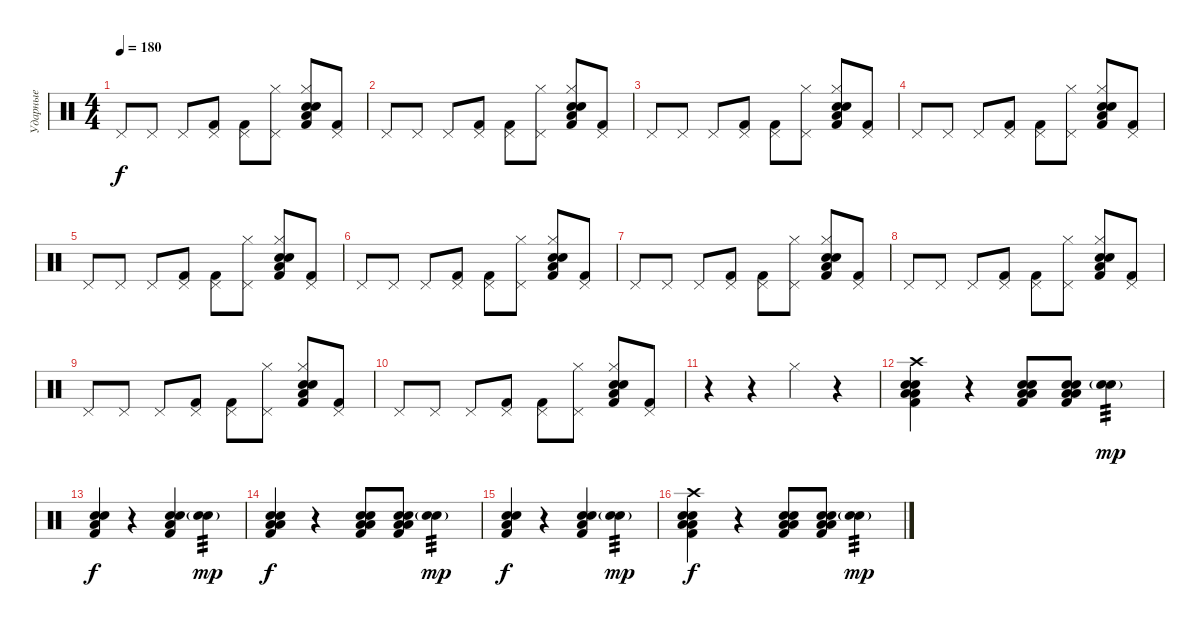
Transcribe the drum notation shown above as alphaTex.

\track ("Ударные" "Ударные") {instrument percussion}
\staff {score}
\articulation defaults
\ts (4 4)
\tempo 180
\clef neutral
\ks c "Pedal Hi-Hat (hit)".8{dy f} "Pedal Hi-Hat (hit)".8 "Pedal Hi-Hat (hit)".8
("Kick (hit) 2" "Pedal Hi-Hat (hit)").8 ("Kick (hit) 2" "Pedal Hi-Hat (hit)").8 ("Hi-Hat (closed)" "Pedal Hi-Hat (hit)").8 ("Hi-Hat (closed)" "Kick (hit) 2" "Snare (hit) 2" "Electric Snare (hit)" "Low Floor Tom (hit)").8 ("Kick (hit) 2" "Pedal Hi-Hat (hit)").8 |
"Pedal Hi-Hat (hit)".8 "Pedal Hi-Hat (hit)".8 "Pedal Hi-Hat (hit)".8 ("Kick (hit) 2" "Pedal Hi-Hat (hit)").8 ("Kick (hit) 2" "Pedal Hi-Hat (hit)").8 ("Hi-Hat (closed)" "Pedal Hi-Hat (hit)").8 ("Hi-Hat (closed)" "Kick (hit) 2" "Snare (hit) 2" "Electric Snare (hit)" "Low Floor Tom (hit)").8 ("Kick (hit) 2" "Pedal Hi-Hat (hit)").8 |
"Pedal Hi-Hat (hit)".8 "Pedal Hi-Hat (hit)".8 "Pedal Hi-Hat (hit)".8 ("Kick (hit) 2" "Pedal Hi-Hat (hit)").8 ("Kick (hit) 2" "Pedal Hi-Hat (hit)").8 ("Hi-Hat (closed)" "Pedal Hi-Hat (hit)").8 ("Hi-Hat (closed)" "Kick (hit) 2" "Snare (hit) 2" "Electric Snare (hit)" "Low Floor Tom (hit)").8 ("Kick (hit) 2" "Pedal Hi-Hat (hit)").8 |
"Pedal Hi-Hat (hit)".8 "Pedal Hi-Hat (hit)".8 "Pedal Hi-Hat (hit)".8 ("Kick (hit) 2" "Pedal Hi-Hat (hit)").8 ("Kick (hit) 2" "Pedal Hi-Hat (hit)").8 ("Hi-Hat (closed)" "Pedal Hi-Hat (hit)").8 ("Hi-Hat (closed)" "Kick (hit) 2" "Snare (hit) 2" "Electric Snare (hit)" "Low Floor Tom (hit)").8 ("Kick (hit) 2" "Pedal Hi-Hat (hit)").8 |
"Pedal Hi-Hat (hit)".8 "Pedal Hi-Hat (hit)".8 "Pedal Hi-Hat (hit)".8 ("Kick (hit) 2" "Pedal Hi-Hat (hit)").8 ("Kick (hit) 2" "Pedal Hi-Hat (hit)").8 ("Hi-Hat (closed)" "Pedal Hi-Hat (hit)").8 ("Hi-Hat (closed)" "Kick (hit) 2" "Snare (hit) 2" "Electric Snare (hit)" "Low Floor Tom (hit)").8 ("Kick (hit) 2" "Pedal Hi-Hat (hit)").8 |
"Pedal Hi-Hat (hit)".8 "Pedal Hi-Hat (hit)".8 "Pedal Hi-Hat (hit)".8 ("Kick (hit) 2" "Pedal Hi-Hat (hit)").8 ("Kick (hit) 2" "Pedal Hi-Hat (hit)").8 ("Hi-Hat (closed)" "Pedal Hi-Hat (hit)").8 ("Hi-Hat (closed)" "Kick (hit) 2" "Snare (hit) 2" "Electric Snare (hit)" "Low Floor Tom (hit)").8 ("Kick (hit) 2" "Pedal Hi-Hat (hit)").8 |
"Pedal Hi-Hat (hit)".8 "Pedal Hi-Hat (hit)".8 "Pedal Hi-Hat (hit)".8 ("Kick (hit) 2" "Pedal Hi-Hat (hit)").8 ("Kick (hit) 2" "Pedal Hi-Hat (hit)").8 ("Hi-Hat (closed)" "Pedal Hi-Hat (hit)").8 ("Hi-Hat (closed)" "Kick (hit) 2" "Snare (hit) 2" "Electric Snare (hit)" "Low Floor Tom (hit)").8 ("Kick (hit) 2" "Pedal Hi-Hat (hit)").8 |
"Pedal Hi-Hat (hit)".8 "Pedal Hi-Hat (hit)".8 "Pedal Hi-Hat (hit)".8 ("Kick (hit) 2" "Pedal Hi-Hat (hit)").8 ("Kick (hit) 2" "Pedal Hi-Hat (hit)").8 ("Hi-Hat (closed)" "Pedal Hi-Hat (hit)").8 ("Hi-Hat (closed)" "Kick (hit) 2" "Snare (hit) 2" "Electric Snare (hit)" "Low Floor Tom (hit)").8 ("Kick (hit) 2" "Pedal Hi-Hat (hit)").8 |
"Pedal Hi-Hat (hit)".8 "Pedal Hi-Hat (hit)".8 "Pedal Hi-Hat (hit)".8 ("Kick (hit) 2" "Pedal Hi-Hat (hit)").8 ("Kick (hit) 2" "Pedal Hi-Hat (hit)").8 ("Hi-Hat (closed)" "Pedal Hi-Hat (hit)").8 ("Hi-Hat (closed)" "Kick (hit) 2" "Snare (hit) 2" "Electric Snare (hit)" "Low Floor Tom (hit)").8 ("Kick (hit) 2" "Pedal Hi-Hat (hit)").8 |
"Pedal Hi-Hat (hit)".8 "Pedal Hi-Hat (hit)".8 "Pedal Hi-Hat (hit)".8 ("Kick (hit) 2" "Pedal Hi-Hat (hit)").8 ("Kick (hit) 2" "Pedal Hi-Hat (hit)").8 ("Hi-Hat (closed)" "Pedal Hi-Hat (hit)").8 ("Hi-Hat (closed)" "Kick (hit) 2" "Snare (hit) 2" "Electric Snare (hit)" "Low Floor Tom (hit)").8 ("Kick (hit) 2" "Pedal Hi-Hat (hit)").8 |
r.4 r.4 "Hi-Hat (closed)".4 r.4 |
("Crash high (hit)" "Kick (hit) 2" "Snare (hit) 2" "Electric Snare (hit)" "Low Floor Tom (hit)" "Low Floor Tom (hit)").4 r.4 ("Kick (hit) 2" "Snare (hit) 2" "Electric Snare (hit)" "Low Floor Tom (hit)" "Low Floor Tom (hit)").8 ("Kick (hit) 2" "Snare (hit) 2" "Electric Snare (hit)" "Low Floor Tom (hit)" "Low Floor Tom (hit)").8 ("Snare (hit) 2" "Electric Snare (hit)"{g}).4{tp 3 dy mp} |
("Kick (hit) 2" "Snare (hit) 2" "Electric Snare (hit)" "Low Floor Tom (hit)").4{dy f} r.4 ("Kick (hit) 2" "Snare (hit) 2" "Electric Snare (hit)" "Low Floor Tom (hit)").4 ("Snare (hit) 2" "Electric Snare (hit)"{g}).4{tp 3 dy mp} |
("Kick (hit) 2" "Snare (hit) 2" "Electric Snare (hit)" "Low Floor Tom (hit)" "Low Floor Tom (hit)").4{dy f} r.4 ("Kick (hit) 2" "Snare (hit) 2" "Electric Snare (hit)" "Low Floor Tom (hit)" "Low Floor Tom (hit)").8 ("Kick (hit) 2" "Snare (hit) 2" "Electric Snare (hit)" "Low Floor Tom (hit)" "Low Floor Tom (hit)").8 ("Snare (hit) 2" "Electric Snare (hit)"{g}).4{tp 3 dy mp} |
("Kick (hit) 2" "Snare (hit) 2" "Electric Snare (hit)" "Low Floor Tom (hit)").4{dy f} r.4 ("Kick (hit) 2" "Snare (hit) 2" "Electric Snare (hit)" "Low Floor Tom (hit)").4 ("Snare (hit) 2" "Electric Snare (hit)"{g}).4{tp 3 dy mp} |
("Crash high (hit)" "Kick (hit) 2" "Snare (hit) 2" "Electric Snare (hit)" "Low Floor Tom (hit)" "Low Floor Tom (hit)").4{dy f} r.4 ("Kick (hit) 2" "Snare (hit) 2" "Electric Snare (hit)" "Low Floor Tom (hit)" "Low Floor Tom (hit)").8 ("Kick (hit) 2" "Snare (hit) 2" "Electric Snare (hit)" "Low Floor Tom (hit)" "Low Floor Tom (hit)").8 ("Snare (hit) 2" "Electric Snare (hit)"{g}).4{tp 3 dy mp}
